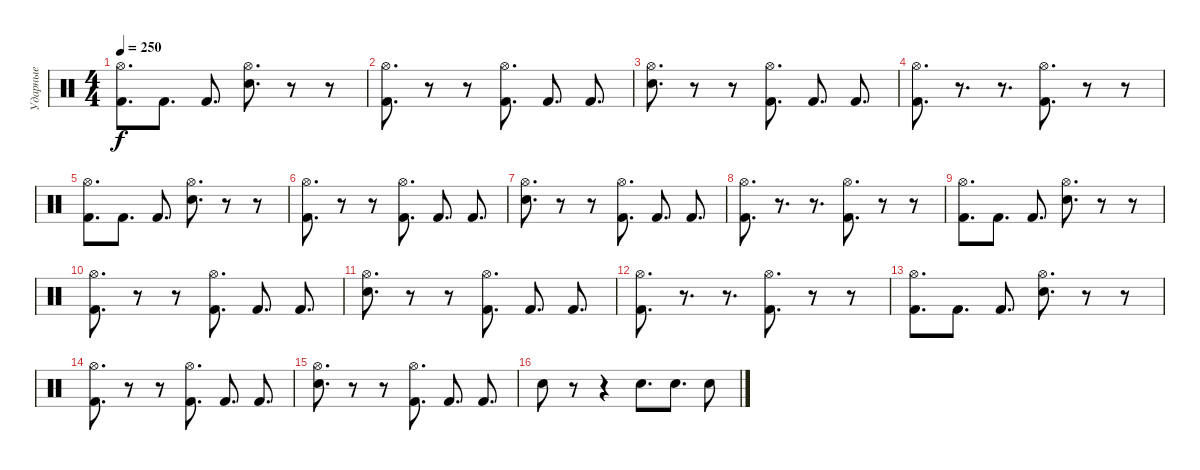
\track ("Ударные" "Ударные") {instrument percussion}
\staff {score}
\articulation defaults
\ts (4 4)
\tempo 250
\clef neutral
\ks c
("Hi-Hat (open)" "Kick (hit) 2").8{d dy f} "Kick (hit) 2".8{d} "Kick (hit) 2".8{d} ("Hi-Hat (open)" "Electric Snare (hit)").8{d} r.8 r.8 |
("Hi-Hat (open)" "Kick (hit) 2").8{d} r.8 r.8 ("Hi-Hat (open)" "Kick (hit) 2").8{d} "Kick (hit) 2".8{d} "Kick (hit) 2".8{d} |
("Hi-Hat (open)" "Electric Snare (hit)").8{d} r.8 r.8 ("Hi-Hat (open)" "Kick (hit) 2").8{d} "Kick (hit) 2".8{d} "Kick (hit) 2".8{d} |
("Hi-Hat (open)" "Kick (hit) 2").8{d} r.8{d} r.8{d} ("Hi-Hat (open)" "Kick (hit) 2").8{d} r.8 r.8 |
("Hi-Hat (open)" "Kick (hit) 2").8{d} "Kick (hit) 2".8{d} "Kick (hit) 2".8{d} ("Hi-Hat (open)" "Electric Snare (hit)").8{d} r.8 r.8 |
("Hi-Hat (open)" "Kick (hit) 2").8{d} r.8 r.8 ("Hi-Hat (open)" "Kick (hit) 2").8{d} "Kick (hit) 2".8{d} "Kick (hit) 2".8{d} |
("Hi-Hat (open)" "Electric Snare (hit)").8{d} r.8 r.8 ("Hi-Hat (open)" "Kick (hit) 2").8{d} "Kick (hit) 2".8{d} "Kick (hit) 2".8{d} |
("Hi-Hat (open)" "Kick (hit) 2").8{d} r.8{d} r.8{d} ("Hi-Hat (open)" "Kick (hit) 2").8{d} r.8 r.8 |
("Hi-Hat (open)" "Kick (hit) 2").8{d} "Kick (hit) 2".8{d} "Kick (hit) 2".8{d} ("Hi-Hat (open)" "Electric Snare (hit)").8{d} r.8 r.8 |
("Hi-Hat (open)" "Kick (hit) 2").8{d} r.8 r.8 ("Hi-Hat (open)" "Kick (hit) 2").8{d} "Kick (hit) 2".8{d} "Kick (hit) 2".8{d} |
("Hi-Hat (open)" "Electric Snare (hit)").8{d} r.8 r.8 ("Hi-Hat (open)" "Kick (hit) 2").8{d} "Kick (hit) 2".8{d} "Kick (hit) 2".8{d} |
("Hi-Hat (open)" "Kick (hit) 2").8{d} r.8{d} r.8{d} ("Hi-Hat (open)" "Kick (hit) 2").8{d} r.8 r.8 |
("Hi-Hat (open)" "Kick (hit) 2").8{d} "Kick (hit) 2".8{d} "Kick (hit) 2".8{d} ("Hi-Hat (open)" "Electric Snare (hit)").8{d} r.8 r.8 |
("Hi-Hat (open)" "Kick (hit) 2").8{d} r.8 r.8 ("Hi-Hat (open)" "Kick (hit) 2").8{d} "Kick (hit) 2".8{d} "Kick (hit) 2".8{d} |
("Hi-Hat (open)" "Electric Snare (hit)").8{d} r.8 r.8 ("Hi-Hat (open)" "Kick (hit) 2").8{d} "Kick (hit) 2".8{d} "Kick (hit) 2".8{d} |
"Electric Snare (hit)".8 r.8 r.4 "Electric Snare (hit)".8{d} "Electric Snare (hit)".8{d} "Electric Snare (hit)".8
